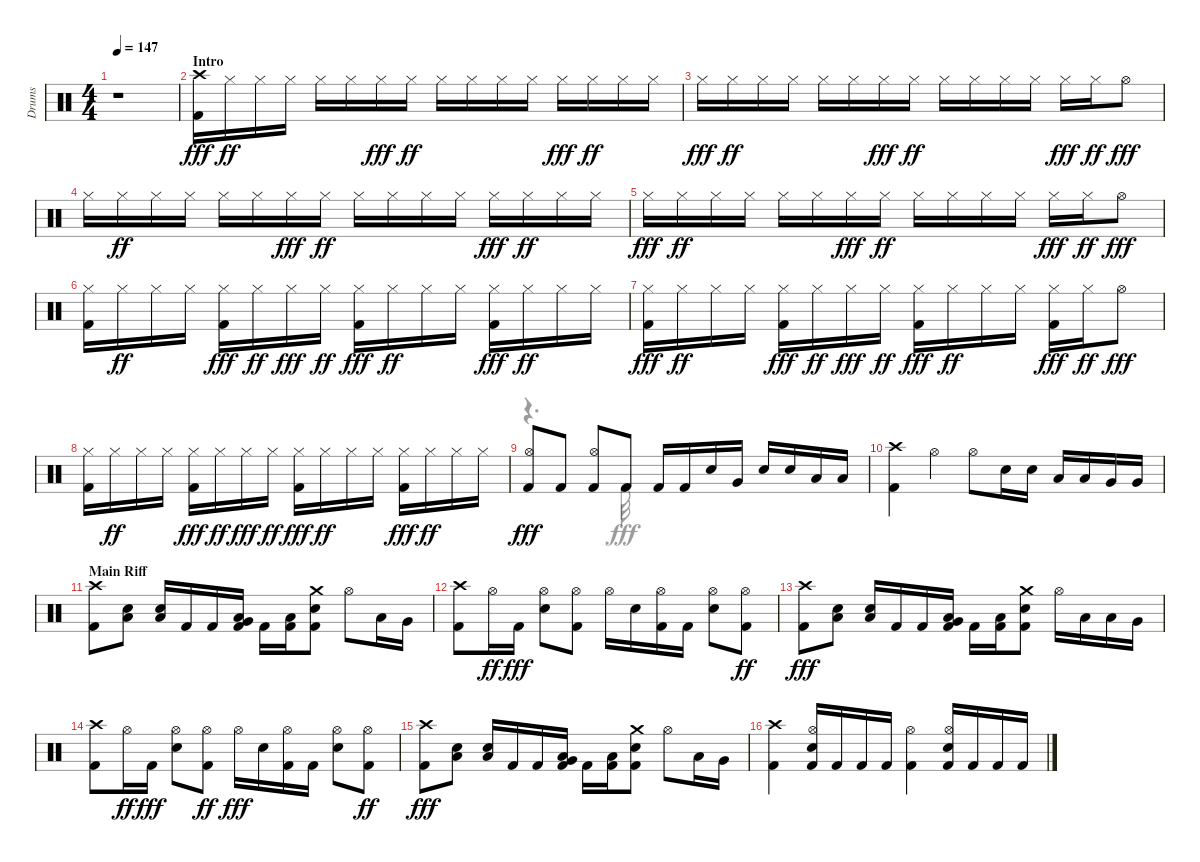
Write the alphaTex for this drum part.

\track ("Drums" "Drums") {instrument percussion}
\staff {score}
\articulation defaults
\voice
\ts (4 4)
\tempo 147
\clef neutral
\ks aminor
r.1{dy fff} |
\section ("" "Intro")
("Kick (hit) 2" "Crash high (hit)").16 "Hi-Hat (closed)".16{dy ff} "Hi-Hat (closed)".16 "Hi-Hat (closed)".16 "Hi-Hat (closed)".16 "Hi-Hat (closed)".16 "Hi-Hat (closed)".16{dy fff} "Hi-Hat (closed)".16{dy ff} "Hi-Hat (closed)".16 "Hi-Hat (closed)".16 "Hi-Hat (closed)".16 "Hi-Hat (closed)".16 "Hi-Hat (closed)".16{dy fff} "Hi-Hat (closed)".16{dy ff} "Hi-Hat (closed)".16 "Hi-Hat (closed)".16 |
"Hi-Hat (closed)".16{dy fff} "Hi-Hat (closed)".16{dy ff} "Hi-Hat (closed)".16 "Hi-Hat (closed)".16 "Hi-Hat (closed)".16 "Hi-Hat (closed)".16 "Hi-Hat (closed)".16{dy fff} "Hi-Hat (closed)".16{dy ff} "Hi-Hat (closed)".16 "Hi-Hat (closed)".16 "Hi-Hat (closed)".16 "Hi-Hat (closed)".16 "Hi-Hat (closed)".16{dy fff} "Hi-Hat (closed)".16{dy ff} "Hi-Hat (open)".8{dy fff} |
"Hi-Hat (closed)".16 "Hi-Hat (closed)".16{dy ff} "Hi-Hat (closed)".16 "Hi-Hat (closed)".16 "Hi-Hat (closed)".16 "Hi-Hat (closed)".16 "Hi-Hat (closed)".16{dy fff} "Hi-Hat (closed)".16{dy ff} "Hi-Hat (closed)".16 "Hi-Hat (closed)".16 "Hi-Hat (closed)".16 "Hi-Hat (closed)".16 "Hi-Hat (closed)".16{dy fff} "Hi-Hat (closed)".16{dy ff} "Hi-Hat (closed)".16 "Hi-Hat (closed)".16 |
"Hi-Hat (closed)".16{dy fff} "Hi-Hat (closed)".16{dy ff} "Hi-Hat (closed)".16 "Hi-Hat (closed)".16 "Hi-Hat (closed)".16 "Hi-Hat (closed)".16 "Hi-Hat (closed)".16{dy fff} "Hi-Hat (closed)".16{dy ff} "Hi-Hat (closed)".16 "Hi-Hat (closed)".16 "Hi-Hat (closed)".16 "Hi-Hat (closed)".16 "Hi-Hat (closed)".16{dy fff} "Hi-Hat (closed)".16{dy ff} "Hi-Hat (open)".8{dy fff} |
("Kick (hit) 2" "Hi-Hat (closed)").16 "Hi-Hat (closed)".16{dy ff} "Hi-Hat (closed)".16 "Hi-Hat (closed)".16 ("Kick (hit) 2" "Hi-Hat (closed)").16{dy fff} "Hi-Hat (closed)".16{dy ff} "Hi-Hat (closed)".16{dy fff} "Hi-Hat (closed)".16{dy ff} ("Kick (hit) 2" "Hi-Hat (closed)").16{dy fff} "Hi-Hat (closed)".16{dy ff} "Hi-Hat (closed)".16 "Hi-Hat (closed)".16 ("Kick (hit) 2" "Hi-Hat (closed)").16{dy fff} "Hi-Hat (closed)".16{dy ff} "Hi-Hat (closed)".16 "Hi-Hat (closed)".16 |
("Kick (hit) 2" "Hi-Hat (closed)").16{dy fff} "Hi-Hat (closed)".16{dy ff} "Hi-Hat (closed)".16 "Hi-Hat (closed)".16 ("Kick (hit) 2" "Hi-Hat (closed)").16{dy fff} "Hi-Hat (closed)".16{dy ff} "Hi-Hat (closed)".16{dy fff} "Hi-Hat (closed)".16{dy ff} ("Kick (hit) 2" "Hi-Hat (closed)").16{dy fff} "Hi-Hat (closed)".16{dy ff} "Hi-Hat (closed)".16 "Hi-Hat (closed)".16 ("Kick (hit) 2" "Hi-Hat (closed)").16{dy fff} "Hi-Hat (closed)".16{dy ff} "Hi-Hat (open)".8{dy fff} |
("Kick (hit) 2" "Hi-Hat (closed)").16 "Hi-Hat (closed)".16{dy ff} "Hi-Hat (closed)".16 "Hi-Hat (closed)".16 ("Kick (hit) 2" "Hi-Hat (closed)").16{dy fff} "Hi-Hat (closed)".16{dy ff} "Hi-Hat (closed)".16{dy fff} "Hi-Hat (closed)".16{dy ff} ("Kick (hit) 2" "Hi-Hat (closed)").16{dy fff} "Hi-Hat (closed)".16{dy ff} "Hi-Hat (closed)".16 "Hi-Hat (closed)".16 ("Kick (hit) 2" "Hi-Hat (closed)").16{dy fff} "Hi-Hat (closed)".16{dy ff} "Hi-Hat (closed)".16 "Hi-Hat (closed)".16 |
("Kick (hit) 2" "Hi-Hat (open)").8{dy fff} "Kick (hit) 2".8 ("Kick (hit) 2" "Hi-Hat (open)").8 "Kick (hit) 2".8 "Kick (hit) 2".16 "Kick (hit) 2".16 "Snare (hit) 2".16 "Very Low Tom (hit)".16 "Snare (hit) 2".16 "Snare (hit) 2".16 "Low Floor Tom (hit)".16 "Low Floor Tom (hit)".16 |
("Crash high (hit)" "Kick (hit) 2").4 "Hi-Hat (open)".4 "Hi-Hat (open)".8 "Snare (hit) 2".16 "Snare (hit) 2".16 "Low Tom (hit)".16 "Low Tom (hit)".16 "Very Low Tom (hit)".16 "Very Low Tom (hit)".16 |
\section ("" "Main Riff")
("Kick (hit) 2" "Crash high (hit)").8 ("Low Floor Tom (hit)" "Snare (hit) 2").8 ("Low Floor Tom (hit)" "Snare (hit) 2").16 "Kick (hit) 2".16 "Kick (hit) 2".16 ("Low Floor Tom (hit)" "Kick (hit) 2" "Very Low Tom (hit)").16 "Kick (hit) 2".16 ("Kick (hit) 2" "Low Floor Tom (hit)").16 ("Kick (hit) 2" "Crash medium (hit)" "Snare (hit) 2").8 "Hi-Hat (open)".8 "Low Tom (hit)".16 "Very Low Tom (hit)".16 |
("Kick (hit) 2" "Crash high (hit)").8 "Hi-Hat (open)".16{dy ff} "Kick (hit) 2".16{dy fff} ("Snare (hit) 2" "Hi-Hat (open)").8 ("Hi-Hat (open)" "Kick (hit) 2").8 "Hi-Hat (open)".16 "Snare (hit) 2".16 ("Kick (hit) 2" "Hi-Hat (open)").16 "Kick (hit) 2".16 ("Hi-Hat (open)" "Snare (hit) 2").8 ("Kick (hit) 2" "Hi-Hat (open)").8{dy ff} |
("Kick (hit) 2" "Crash high (hit)").8{dy fff} ("Snare (hit) 2" "Low Floor Tom (hit)").8 ("Snare (hit) 2" "Low Floor Tom (hit)").16 "Kick (hit) 2".16 "Kick (hit) 2".16 ("Kick (hit) 2" "Low Floor Tom (hit)" "Very Low Tom (hit)").16 "Kick (hit) 2".16 ("Low Floor Tom (hit)" "Kick (hit) 2").16 ("Snare (hit) 2" "Kick (hit) 2" "Crash medium (hit)").8 "Hi-Hat (open)".16 "Low Tom (hit)".16 "Low Tom (hit)".16 "Very Low Tom (hit)".16 |
("Kick (hit) 2" "Crash high (hit)").8 "Hi-Hat (open)".16{dy ff} "Kick (hit) 2".16{dy fff} ("Hi-Hat (open)" "Snare (hit) 2").8 ("Hi-Hat (open)" "Kick (hit) 2").8{dy ff} "Hi-Hat (open)".16{dy fff} "Snare (hit) 2".16 ("Kick (hit) 2" "Hi-Hat (open)").16 "Kick (hit) 2".16 ("Snare (hit) 2" "Hi-Hat (open)").8 ("Kick (hit) 2" "Hi-Hat (open)").8{dy ff} |
("Kick (hit) 2" "Crash high (hit)").8{dy fff} ("Snare (hit) 2" "Low Floor Tom (hit)").8 ("Snare (hit) 2" "Low Floor Tom (hit)").16 "Kick (hit) 2".16 "Kick (hit) 2".16 ("Low Floor Tom (hit)" "Very Low Tom (hit)" "Kick (hit) 2").16 "Kick (hit) 2".16 ("Kick (hit) 2" "Low Floor Tom (hit)").16 ("Snare (hit) 2" "Crash medium (hit)" "Kick (hit) 2").8 "Hi-Hat (open)".8 "Low Tom (hit)".16 "Very Low Tom (hit)".16 |
("Crash high (hit)" "Kick (hit) 2").4 ("Hi-Hat (open)" "Kick (hit) 2" "Snare (hit) 2").16 "Kick (hit) 2".16 "Kick (hit) 2".16 "Kick (hit) 2".16 ("Kick (hit) 2" "Hi-Hat (open)").4 ("Snare (hit) 2" "Kick (hit) 2" "Hi-Hat (open)").16 "Kick (hit) 2".16 "Kick (hit) 2".16 "Kick (hit) 2".16
\voice
\clef neutral
\ottava regular
\simile none
\ks aminor
|
|
|
|
|
|
|
|
r.4{d} "Kick (hit) 2".32 |
|
|
|
|
|
|
